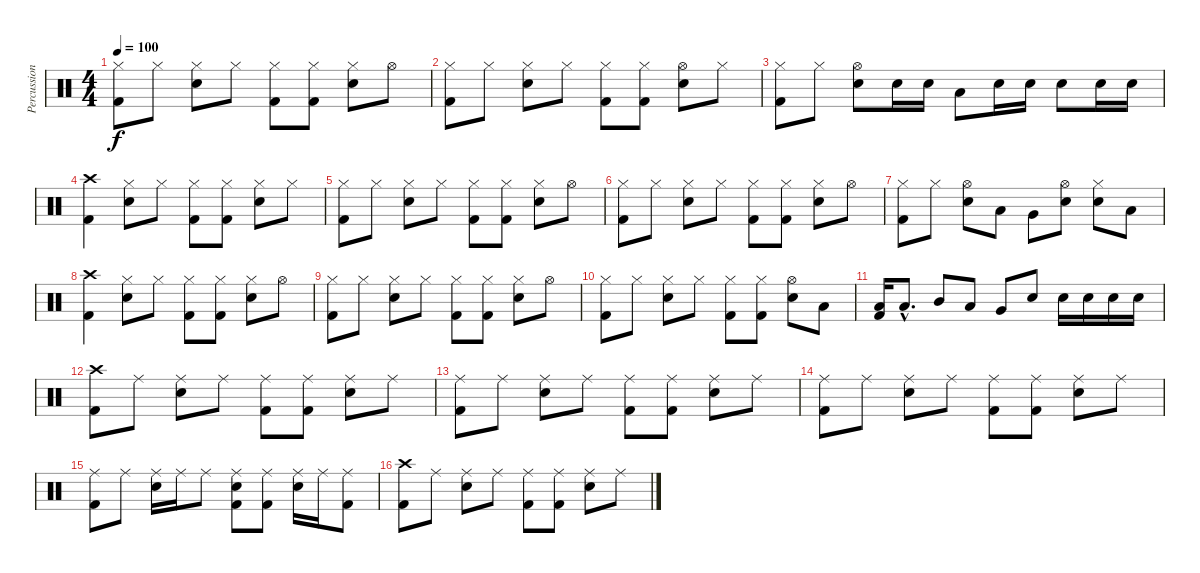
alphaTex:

\track ("Percussion" "Percussion") {instrument percussion}
\staff {score}
\articulation defaults
\ts (4 4)
\tempo 100
\clef neutral
\ks c
("Hi-Hat (closed)" "Kick (hit) 2").8{dy f} "Hi-Hat (closed)".8 ("Hi-Hat (closed)" "Electric Snare (hit)").8 "Hi-Hat (closed)".8 ("Hi-Hat (closed)" "Kick (hit) 2").8 ("Hi-Hat (closed)" "Kick (hit) 2").8 ("Hi-Hat (closed)" "Electric Snare (hit)").8 "Hi-Hat (open)".8 |
("Hi-Hat (closed)" "Kick (hit) 2").8 "Hi-Hat (closed)".8 ("Hi-Hat (closed)" "Electric Snare (hit)").8 "Hi-Hat (closed)".8 ("Hi-Hat (closed)" "Kick (hit) 2").8 ("Hi-Hat (closed)" "Kick (hit) 2").8 ("Hi-Hat (open)" "Electric Snare (hit)").8 "Hi-Hat (closed)".8 |
("Hi-Hat (closed)" "Kick (hit) 2").8 "Hi-Hat (closed)".8 ("Hi-Hat (open)" "Electric Snare (hit)").8 "Electric Snare (hit)".16 "Electric Snare (hit)".16 "Low Tom (hit)".8 "Electric Snare (hit)".16 "Electric Snare (hit)".16 "Electric Snare (hit)".8 "Electric Snare (hit)".16 "Electric Snare (hit)".16 |
("Crash high (hit)" "Kick (hit) 2").4 ("Hi-Hat (closed)" "Electric Snare (hit)").8 "Hi-Hat (closed)".8 ("Hi-Hat (closed)" "Kick (hit) 2").8 ("Hi-Hat (closed)" "Kick (hit) 2").8 ("Hi-Hat (closed)" "Electric Snare (hit)").8 "Hi-Hat (closed)".8 |
("Hi-Hat (closed)" "Kick (hit) 2").8 "Hi-Hat (closed)".8 ("Hi-Hat (closed)" "Electric Snare (hit)").8 "Hi-Hat (closed)".8 ("Hi-Hat (closed)" "Kick (hit) 2").8 ("Hi-Hat (closed)" "Kick (hit) 2").8 ("Hi-Hat (closed)" "Electric Snare (hit)").8 "Hi-Hat (open)".8 |
("Hi-Hat (closed)" "Kick (hit) 2").8 "Hi-Hat (closed)".8 ("Hi-Hat (closed)" "Electric Snare (hit)").8 "Hi-Hat (closed)".8 ("Hi-Hat (closed)" "Kick (hit) 2").8 ("Hi-Hat (closed)" "Kick (hit) 2").8 ("Hi-Hat (closed)" "Electric Snare (hit)").8 "Hi-Hat (open)".8 |
("Hi-Hat (closed)" "Kick (hit) 2").8 "Hi-Hat (closed)".8 ("Hi-Hat (open)" "Electric Snare (hit)").8 "Low Tom (hit)".8 "Very Low Tom (hit)".8 ("Hi-Hat (open)" "Electric Snare (hit)").8 ("Hi-Hat (closed)" "Electric Snare (hit)").8 "Low Tom (hit)".8 |
("Crash high (hit)" "Kick (hit) 2").4 ("Hi-Hat (closed)" "Electric Snare (hit)").8 "Hi-Hat (closed)".8 ("Hi-Hat (closed)" "Kick (hit) 2").8 ("Hi-Hat (closed)" "Kick (hit) 2").8 ("Hi-Hat (closed)" "Electric Snare (hit)").8 "Hi-Hat (open)".8 |
("Hi-Hat (closed)" "Kick (hit) 2").8 "Hi-Hat (closed)".8 ("Hi-Hat (closed)" "Electric Snare (hit)").8 "Hi-Hat (closed)".8 ("Hi-Hat (closed)" "Kick (hit) 2").8 ("Hi-Hat (closed)" "Kick (hit) 2").8 ("Hi-Hat (closed)" "Electric Snare (hit)").8 "Hi-Hat (open)".8 |
("Hi-Hat (closed)" "Kick (hit) 2").8 "Hi-Hat (closed)".8 ("Hi-Hat (closed)" "Electric Snare (hit)").8 "Hi-Hat (closed)".8 ("Hi-Hat (closed)" "Kick (hit) 2").8 ("Hi-Hat (closed)" "Kick (hit) 2").8 ("Hi-Hat (open)" "Electric Snare (hit)").8 "Low Tom (hit)".8 |
("Low Tom (hit)" "Kick (hit) 2").16 "Low Tom (hit)"{hac}.8{d} "Mid Tom (hit)".8 "Low Tom (hit)".8 "Very Low Tom (hit)".8 "Electric Snare (hit)".8 "Electric Snare (hit)".16 "Electric Snare (hit)".16 "Electric Snare (hit)".16 "Electric Snare (hit)".16 |
("Crash high (hit)" "Kick (hit) 2").8 "Ride (middle)".8 ("Ride (middle)" "Electric Snare (hit)").8 "Ride (middle)".8 ("Ride (middle)" "Kick (hit) 2").8 ("Ride (middle)" "Kick (hit) 2").8 ("Ride (middle)" "Electric Snare (hit)").8 "Ride (middle)".8 |
("Ride (middle)" "Kick (hit) 2").8 "Ride (middle)".8 ("Ride (middle)" "Electric Snare (hit)").8 "Ride (middle)".8 ("Ride (middle)" "Kick (hit) 2").8 ("Ride (middle)" "Kick (hit) 2").8 ("Ride (middle)" "Electric Snare (hit)").8 "Ride (middle)".8 |
("Ride (middle)" "Kick (hit) 2").8 "Ride (middle)".8 ("Ride (middle)" "Electric Snare (hit)").8 "Ride (middle)".8 ("Ride (middle)" "Kick (hit) 2").8 ("Ride (middle)" "Kick (hit) 2").8 ("Ride (middle)" "Electric Snare (hit)").8 "Ride (middle)".8 |
("Ride (middle)" "Kick (hit) 2").8 "Ride (middle)".8 ("Ride (middle)" "Electric Snare (hit)").16 "Ride (middle)".16 "Ride (middle)".8 ("Ride (middle)" "Electric Snare (hit)" "Kick (hit) 2").8 ("Ride (middle)" "Kick (hit) 2").8 ("Ride (middle)" "Electric Snare (hit)").16 "Ride (middle)".16 ("Ride (middle)" "Kick (hit) 2").8 |
("Crash high (hit)" "Kick (hit) 2").8 "Ride (middle)".8 ("Ride (middle)" "Electric Snare (hit)").8 "Ride (middle)".8 ("Ride (middle)" "Kick (hit) 2").8 ("Ride (middle)" "Kick (hit) 2").8 ("Ride (middle)" "Electric Snare (hit)").8 "Ride (middle)".8
